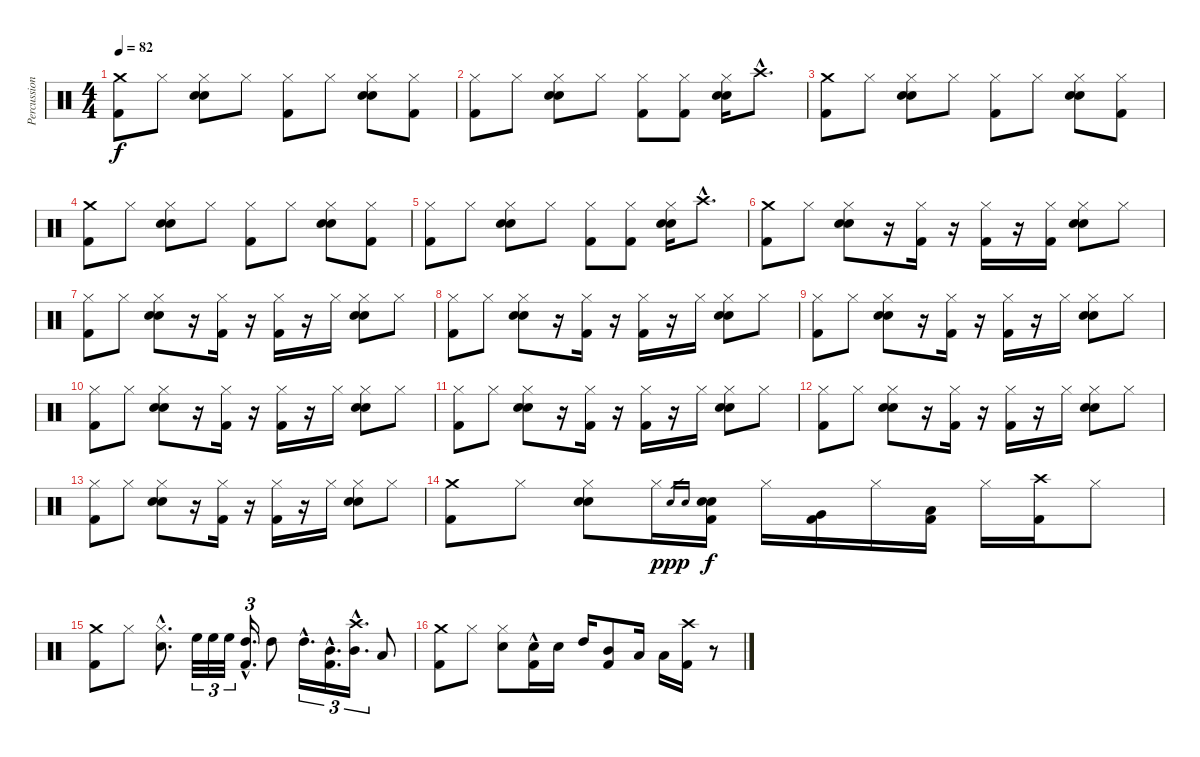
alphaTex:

\track ("Percussion" "Percussion") {instrument percussion}
\staff {score}
\articulation defaults
\ts (4 4)
\tempo 82
\clef neutral
\ks c
("Crash medium (hit)" "Kick (hit) 2").8{dy f} "Hi-Hat (closed)".8 ("Hi-Hat (closed)" "Snare (hit) 2" "Electric Snare (hit)").8 "Hi-Hat (closed)".8 ("Hi-Hat (closed)" "Kick (hit) 2").8 "Hi-Hat (closed)".8 ("Hi-Hat (closed)" "Snare (hit) 2" "Electric Snare (hit)").8 ("Hi-Hat (closed)" "Kick (hit) 2").8 |
("Hi-Hat (closed)" "Kick (hit) 2").8 "Hi-Hat (closed)".8 ("Hi-Hat (closed)" "Snare (hit) 2" "Electric Snare (hit)").8 "Hi-Hat (closed)".8 ("Hi-Hat (closed)" "Kick (hit) 2").8 ("Hi-Hat (closed)" "Kick (hit) 2").8 ("Hi-Hat (closed)" "Snare (hit) 2" "Electric Snare (hit)").16 "Crash high (hit)"{hac}.8{d} |
("Crash medium (hit)" "Kick (hit) 2").8 "Hi-Hat (closed)".8 ("Hi-Hat (closed)" "Snare (hit) 2" "Electric Snare (hit)").8 "Hi-Hat (closed)".8 ("Hi-Hat (closed)" "Kick (hit) 2").8 "Hi-Hat (closed)".8 ("Hi-Hat (closed)" "Snare (hit) 2" "Electric Snare (hit)").8 ("Hi-Hat (closed)" "Kick (hit) 2").8 |
("Crash medium (hit)" "Kick (hit) 2").8 "Hi-Hat (closed)".8 ("Hi-Hat (closed)" "Snare (hit) 2" "Electric Snare (hit)").8 "Hi-Hat (closed)".8 ("Hi-Hat (closed)" "Kick (hit) 2").8 "Hi-Hat (closed)".8 ("Hi-Hat (closed)" "Snare (hit) 2" "Electric Snare (hit)").8 ("Hi-Hat (closed)" "Kick (hit) 2").8 |
("Hi-Hat (closed)" "Kick (hit) 2").8 "Hi-Hat (closed)".8 ("Hi-Hat (closed)" "Snare (hit) 2" "Electric Snare (hit)").8 "Hi-Hat (closed)".8 ("Hi-Hat (closed)" "Kick (hit) 2").8 ("Hi-Hat (closed)" "Kick (hit) 2").8 ("Hi-Hat (closed)" "Snare (hit) 2" "Electric Snare (hit)").16 "Crash high (hit)"{hac}.8{d} |
("Crash medium (hit)" "Kick (hit) 2").8 "Hi-Hat (closed)".8 ("Hi-Hat (closed)" "Snare (hit) 2" "Electric Snare (hit)").8 r.16 ("Hi-Hat (closed)" "Kick (hit) 2").16 r.16 ("Hi-Hat (closed)" "Kick (hit) 2").16 r.16 ("Hi-Hat (closed)" "Kick (hit) 2").16 ("Hi-Hat (closed)" "Snare (hit) 2" "Electric Snare (hit)").8 "Hi-Hat (closed)".8 |
("Hi-Hat (closed)" "Kick (hit) 2").8 "Hi-Hat (closed)".8 ("Hi-Hat (closed)" "Snare (hit) 2" "Electric Snare (hit)").8 r.16 ("Hi-Hat (closed)" "Kick (hit) 2").16 r.16 ("Hi-Hat (closed)" "Kick (hit) 2").16 r.16 "Hi-Hat (closed)".16 ("Hi-Hat (closed)" "Snare (hit) 2" "Electric Snare (hit)").8 "Hi-Hat (closed)".8 |
("Hi-Hat (closed)" "Kick (hit) 2").8 "Hi-Hat (closed)".8 ("Hi-Hat (closed)" "Snare (hit) 2" "Electric Snare (hit)").8 r.16 ("Hi-Hat (closed)" "Kick (hit) 2").16 r.16 ("Hi-Hat (closed)" "Kick (hit) 2").16 r.16 "Hi-Hat (closed)".16 ("Hi-Hat (closed)" "Snare (hit) 2" "Electric Snare (hit)").8 "Hi-Hat (closed)".8 |
("Hi-Hat (closed)" "Kick (hit) 2").8 "Hi-Hat (closed)".8 ("Hi-Hat (closed)" "Snare (hit) 2" "Electric Snare (hit)").8 r.16 ("Hi-Hat (closed)" "Kick (hit) 2").16 r.16 ("Hi-Hat (closed)" "Kick (hit) 2").16 r.16 "Hi-Hat (closed)".16 ("Hi-Hat (closed)" "Snare (hit) 2" "Electric Snare (hit)").8 "Hi-Hat (closed)".8 |
("Hi-Hat (closed)" "Kick (hit) 2").8 "Hi-Hat (closed)".8 ("Hi-Hat (closed)" "Snare (hit) 2" "Electric Snare (hit)").8 r.16 ("Hi-Hat (closed)" "Kick (hit) 2").16 r.16 ("Hi-Hat (closed)" "Kick (hit) 2").16 r.16 "Hi-Hat (closed)".16 ("Hi-Hat (closed)" "Snare (hit) 2" "Electric Snare (hit)").8 "Hi-Hat (closed)".8 |
("Hi-Hat (closed)" "Kick (hit) 2").8 "Hi-Hat (closed)".8 ("Hi-Hat (closed)" "Snare (hit) 2" "Electric Snare (hit)").8 r.16 ("Hi-Hat (closed)" "Kick (hit) 2").16 r.16 ("Hi-Hat (closed)" "Kick (hit) 2").16 r.16 "Hi-Hat (closed)".16 ("Hi-Hat (closed)" "Snare (hit) 2" "Electric Snare (hit)").8 "Hi-Hat (closed)".8 |
("Hi-Hat (closed)" "Kick (hit) 2").8 "Hi-Hat (closed)".8 ("Hi-Hat (closed)" "Snare (hit) 2" "Electric Snare (hit)").8 r.16 ("Hi-Hat (closed)" "Kick (hit) 2").16 r.16 ("Hi-Hat (closed)" "Kick (hit) 2").16 r.16 "Hi-Hat (closed)".16 ("Hi-Hat (closed)" "Snare (hit) 2" "Electric Snare (hit)").8 "Hi-Hat (closed)".8 |
("Hi-Hat (closed)" "Kick (hit) 2").8 "Hi-Hat (closed)".8 ("Hi-Hat (closed)" "Snare (hit) 2" "Electric Snare (hit)").8 r.16 ("Hi-Hat (closed)" "Kick (hit) 2").16 r.16 ("Hi-Hat (closed)" "Kick (hit) 2").16 r.16 "Hi-Hat (closed)".16 ("Hi-Hat (closed)" "Snare (hit) 2" "Electric Snare (hit)").8 "Hi-Hat (closed)".8 |
("Crash medium (hit)" "Kick (hit) 2").8 "Hi-Hat (closed)".8 ("Hi-Hat (closed)" "Snare (hit) 2" "Electric Snare (hit)").8 "Hi-Hat (closed)".16 "Snare (hit) 2".16{gr dy ppp} "Electric Snare (hit)".16{gr} ("Snare (hit) 2" "Electric Snare (hit)" "Kick (hit) 2").16{dy f} "Hi-Hat (closed)".16 ("Very Low Tom (hit)" "Kick (hit) 2").16 "Hi-Hat (closed)".16 ("Low Floor Tom (hit)" "Kick (hit) 2").16 "Hi-Hat (closed)".16 ("Crash high (hit)" "Kick (hit) 2").16 "Hi-Hat (closed)".8 |
("Crash medium (hit)" "Kick (hit) 2").8 "Hi-Hat (closed)".8 ("Hi-Hat (closed)"{hac} "Electric Snare (hit)"{hac}).8{d} "High Floor Tom (hit)".32{tu (3 2)} "High Floor Tom (hit)".32{tu (3 2)} "High Floor Tom (hit)".32{tu (3 2)} ("High Tom (hit)"{hac} "Kick (hit) 2"{hac}).16{d tu (3 2)} "High Tom (hit)".8 "High Tom (hit)"{hac}.16{d tu (3 2)} ("Mid Tom (hit)"{hac} "Kick (hit) 2"{hac}).16{d tu (3 2)} ("Crash high (hit)"{hac} "Mid Tom (hit)"{hac}).16{d tu (3 2)} "Low Floor Tom (hit)".8 |
("Crash medium (hit)" "Kick (hit) 2").8 "Hi-Hat (closed)".8 ("Hi-Hat (closed)" "Electric Snare (hit)").8 ("Electric Snare (hit)"{hac} "Kick (hit) 2").16 "Electric Snare (hit)".16 "High Tom (hit)".16 ("Mid Tom (hit)" "Kick (hit) 2").8 "Low Floor Tom (hit)".16 "Low Floor Tom (hit)".16 ("Crash high (hit)" "Kick (hit) 2").16 r.8
